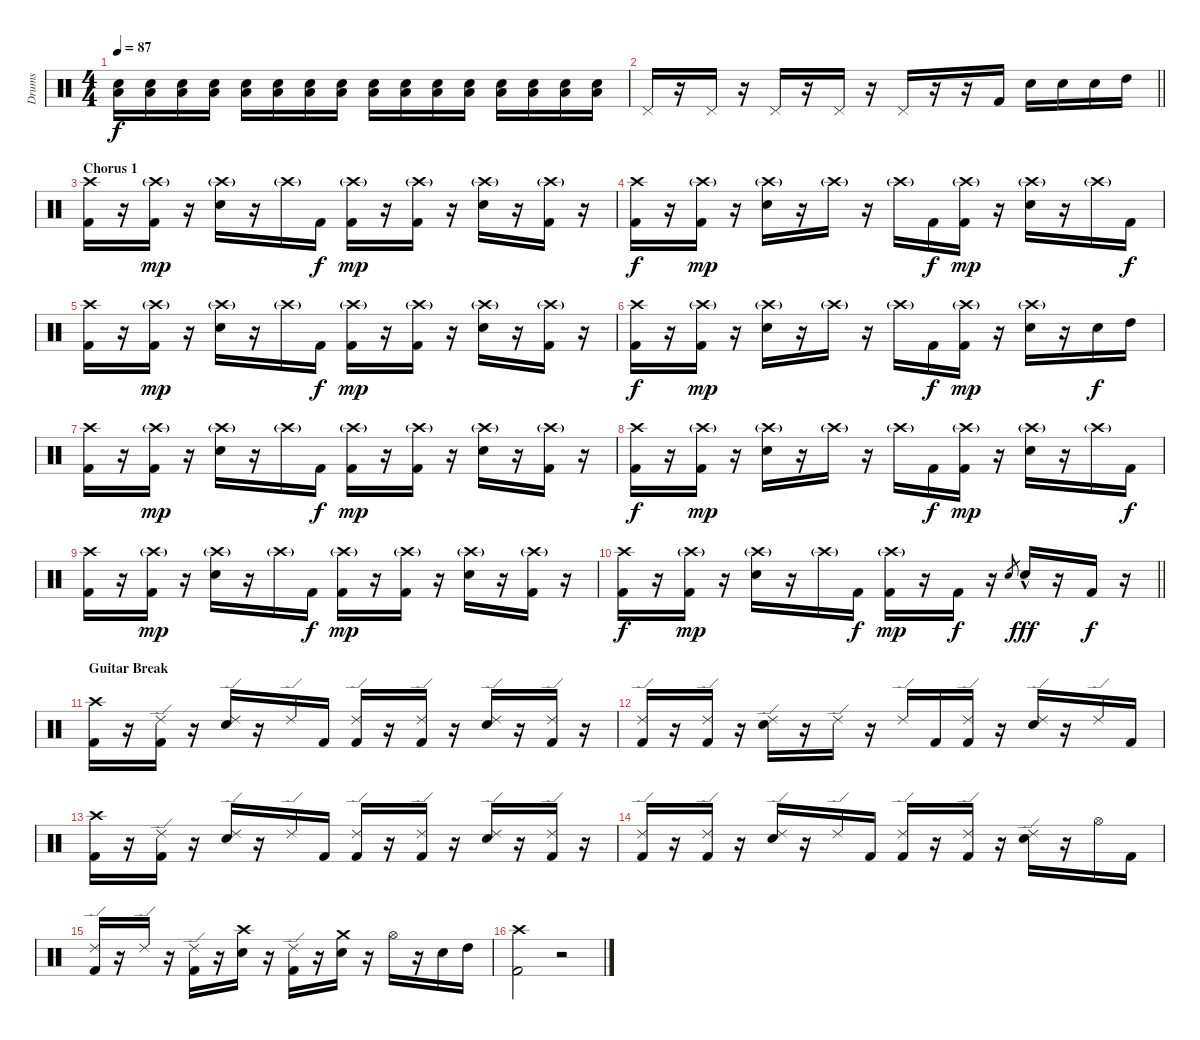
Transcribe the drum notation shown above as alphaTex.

\track ("Drums" "Drums") {instrument percussion}
\staff {score}
\articulation defaults
\ts (4 4)
\tempo 87
\clef neutral
\ks c
("Snare (hit) 2" "Low Floor Tom (hit)").16{dy f} ("Snare (hit) 2" "Low Floor Tom (hit)").16 ("Snare (hit) 2" "Low Floor Tom (hit)").16 ("Snare (hit) 2" "Low Floor Tom (hit)").16 ("Snare (hit) 2" "Low Floor Tom (hit)").16 ("Snare (hit) 2" "Low Floor Tom (hit)").16 ("Snare (hit) 2" "Low Floor Tom (hit)").16 ("Snare (hit) 2" "Low Floor Tom (hit)").16 ("Snare (hit) 2" "Low Floor Tom (hit)").16 ("Snare (hit) 2" "Low Floor Tom (hit)").16 ("Snare (hit) 2" "Low Floor Tom (hit)").16 ("Snare (hit) 2" "Low Floor Tom (hit)").16 ("Snare (hit) 2" "Low Floor Tom (hit)").16 ("Snare (hit) 2" "Low Floor Tom (hit)").16 ("Snare (hit) 2" "Low Floor Tom (hit)").16 ("Snare (hit) 2" "Low Floor Tom (hit)").16 |
\barLineRight lightlight "Pedal Hi-Hat (hit)".16
r.16 "Pedal Hi-Hat (hit)".16 r.16 "Pedal Hi-Hat (hit)".16 r.16 "Pedal Hi-Hat (hit)".16 r.16 "Pedal Hi-Hat (hit)".16 r.16 r.16 "Kick (hit) 2".16 "Snare (hit) 2".16 "Snare (hit) 2".16 "Snare (hit) 2".16 "High Tom (hit)".16 |
\section ("" "Chorus 1")
("Crash high (hit)" "Kick (hit) 2").16 r.16 ("Crash high (hit)"{g} "Kick (hit) 2").16{dy mp} r.16 ("Crash high (hit)"{g} "Snare (hit) 2").16 r.16 "Crash high (hit)"{g}.16 "Kick (hit) 2".16{dy f} ("Crash high (hit)"{g} "Kick (hit) 2").16{dy mp} r.16 ("Crash high (hit)"{g} "Kick (hit) 2").16 r.16 ("Crash high (hit)"{g} "Snare (hit) 2").16 r.16 ("Crash high (hit)"{g} "Kick (hit) 2").16 r.16 |
("Crash high (hit)" "Kick (hit) 2").16{dy f} r.16 ("Crash high (hit)"{g} "Kick (hit) 2").16{dy mp} r.16 ("Crash high (hit)"{g} "Snare (hit) 2").16 r.16 "Crash high (hit)"{g}.16 r.16 "Crash high (hit)"{g}.16 "Kick (hit) 2".16{dy f} ("Crash high (hit)"{g} "Kick (hit) 2").16{dy mp} r.16 ("Crash high (hit)"{g} "Snare (hit) 2").16 r.16 "Crash high (hit)"{g}.16 "Kick (hit) 2".16{dy f} |
("Crash high (hit)" "Kick (hit) 2").16 r.16 ("Crash high (hit)"{g} "Kick (hit) 2").16{dy mp} r.16 ("Crash high (hit)"{g} "Snare (hit) 2").16 r.16 "Crash high (hit)"{g}.16 "Kick (hit) 2".16{dy f} ("Crash high (hit)"{g} "Kick (hit) 2").16{dy mp} r.16 ("Crash high (hit)"{g} "Kick (hit) 2").16 r.16 ("Crash high (hit)"{g} "Snare (hit) 2").16 r.16 ("Crash high (hit)"{g} "Kick (hit) 2").16 r.16 |
("Crash high (hit)" "Kick (hit) 2").16{dy f} r.16 ("Crash high (hit)"{g} "Kick (hit) 2").16{dy mp} r.16 ("Crash high (hit)"{g} "Snare (hit) 2").16 r.16 "Crash high (hit)"{g}.16 r.16 "Crash high (hit)"{g}.16 "Kick (hit) 2".16{dy f} ("Crash high (hit)"{g} "Kick (hit) 2").16{dy mp} r.16 ("Crash high (hit)"{g} "Snare (hit) 2").16 r.16 "Snare (hit) 2".16{dy f} "High Tom (hit)".16 |
("Crash high (hit)" "Kick (hit) 2").16 r.16 ("Crash high (hit)"{g} "Kick (hit) 2").16{dy mp} r.16 ("Crash high (hit)"{g} "Snare (hit) 2").16 r.16 "Crash high (hit)"{g}.16 "Kick (hit) 2".16{dy f} ("Crash high (hit)"{g} "Kick (hit) 2").16{dy mp} r.16 ("Crash high (hit)"{g} "Kick (hit) 2").16 r.16 ("Crash high (hit)"{g} "Snare (hit) 2").16 r.16 ("Crash high (hit)"{g} "Kick (hit) 2").16 r.16 |
("Crash high (hit)" "Kick (hit) 2").16{dy f} r.16 ("Crash high (hit)"{g} "Kick (hit) 2").16{dy mp} r.16 ("Crash high (hit)"{g} "Snare (hit) 2").16 r.16 "Crash high (hit)"{g}.16 r.16 "Crash high (hit)"{g}.16 "Kick (hit) 2".16{dy f} ("Crash high (hit)"{g} "Kick (hit) 2").16{dy mp} r.16 ("Crash high (hit)"{g} "Snare (hit) 2").16 r.16 "Crash high (hit)"{g}.16 "Kick (hit) 2".16{dy f} |
("Crash high (hit)" "Kick (hit) 2").16 r.16 ("Crash high (hit)"{g} "Kick (hit) 2").16{dy mp} r.16 ("Crash high (hit)"{g} "Snare (hit) 2").16 r.16 "Crash high (hit)"{g}.16 "Kick (hit) 2".16{dy f} ("Crash high (hit)"{g} "Kick (hit) 2").16{dy mp} r.16 ("Crash high (hit)"{g} "Kick (hit) 2").16 r.16 ("Crash high (hit)"{g} "Snare (hit) 2").16 r.16 ("Crash high (hit)"{g} "Kick (hit) 2").16 r.16 |
\barLineRight lightlight
("Crash high (hit)" "Kick (hit) 2").16{dy f} r.16 ("Crash high (hit)"{g} "Kick (hit) 2").16{dy mp} r.16 ("Crash high (hit)"{g} "Snare (hit) 2").16 r.16 "Crash high (hit)"{g}.16 "Kick (hit) 2".16{dy f} ("Crash high (hit)"{g} "Kick (hit) 2").16{dy mp} r.16 "Kick (hit) 2".16{dy f} r.16 "Snare (hit) 2".8{gr} "Snare (hit) 2"{hac}.16{dy fff} r.16 "Kick (hit) 2".16{dy f} r.16 |
\section ("" "Guitar Break")
("Crash high (hit)" "Kick (hit) 2").16 r.16 ("Ride (edge) 2" "Kick (hit) 2").16 r.16 ("Ride (edge) 2" "Snare (hit) 2").16 r.16 "Ride (edge) 2".16 "Kick (hit) 2".16 ("Ride (edge) 2" "Kick (hit) 2").16 r.16 ("Ride (edge) 2" "Kick (hit) 2").16 r.16 ("Ride (edge) 2" "Snare (hit) 2").16 r.16 ("Ride (edge) 2" "Kick (hit) 2").16 r.16 |
("Ride (edge) 2" "Kick (hit) 2").16 r.16 ("Ride (edge) 2" "Kick (hit) 2").16 r.16 ("Ride (edge) 2" "Snare (hit) 2").16 r.16 "Ride (edge) 2".16 r.16 "Ride (edge) 2".16 "Kick (hit) 2".16 ("Ride (edge) 2" "Kick (hit) 2").16 r.16 ("Ride (edge) 2" "Snare (hit) 2").16 r.16 "Ride (edge) 2".16 "Kick (hit) 2".16 |
("Crash high (hit)" "Kick (hit) 2").16 r.16 ("Ride (edge) 2" "Kick (hit) 2").16 r.16 ("Ride (edge) 2" "Snare (hit) 2").16 r.16 "Ride (edge) 2".16 "Kick (hit) 2".16 ("Ride (edge) 2" "Kick (hit) 2").16 r.16 ("Ride (edge) 2" "Kick (hit) 2").16 r.16 ("Ride (edge) 2" "Snare (hit) 2").16 r.16 ("Ride (edge) 2" "Kick (hit) 2").16 r.16 |
("Ride (edge) 2" "Kick (hit) 2").16 r.16 ("Ride (edge) 2" "Kick (hit) 2").16 r.16 ("Ride (edge) 2" "Snare (hit) 2").16 r.16 "Ride (edge) 2".16 "Kick (hit) 2".16 ("Ride (edge) 2" "Kick (hit) 2").16 r.16 ("Ride (edge) 2" "Kick (hit) 2").16 r.16 ("Ride (edge) 2" "Snare (hit) 2").16 r.16 "Hi-Hat (open)".16 "Kick (hit) 2".16 |
("Ride (edge) 2" "Kick (hit) 2").16 r.16 "Ride (edge) 2".16 r.16 ("Ride (edge) 2" "Kick (hit) 2").16 r.16 ("Crash high (hit)" "Snare (hit) 2").16 r.16 ("Ride (edge) 2" "Kick (hit) 2").16 r.16 ("Crash medium (hit)" "Snare (hit) 2").16 r.16 "Hi-Hat (open)".16 r.16 "Snare (hit) 2".16 "High Tom (hit)".16 |
("Crash high (hit)" "Kick (hit) 2").2 r.2
